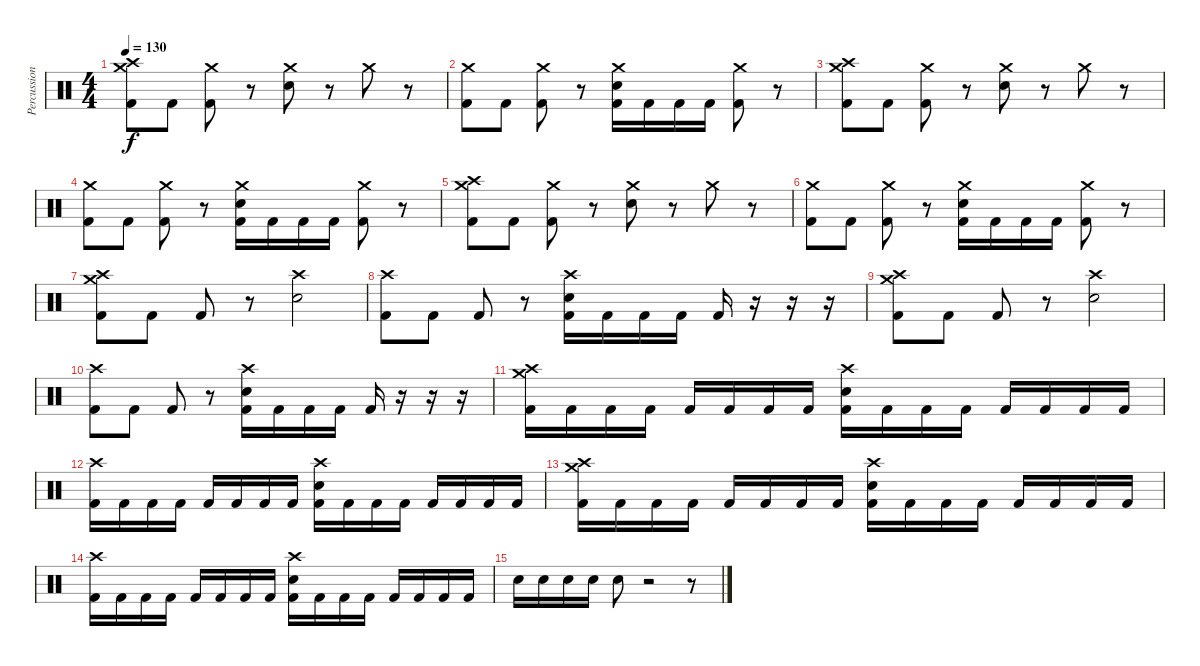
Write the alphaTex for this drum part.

\track ("Percussion" "Percussion") {instrument percussion}
\staff {score}
\articulation defaults
\ts (4 4)
\tempo 130
\clef neutral
\ks c
("Crash high (hit)" "Crash medium (hit)" "Kick (hit) 2").8{dy f} "Kick (hit) 2".8 ("Crash medium (hit)" "Kick (hit) 2").8 r.8 ("Crash medium (hit)" "Electric Snare (hit)").8 r.8 "Crash medium (hit)".8 r.8 |
("Crash medium (hit)" "Kick (hit) 2").8 "Kick (hit) 2".8 ("Crash medium (hit)" "Kick (hit) 2").8 r.8 ("Crash medium (hit)" "Electric Snare (hit)" "Kick (hit) 2").16 "Kick (hit) 2".16 "Kick (hit) 2".16 "Kick (hit) 2".16 ("Crash medium (hit)" "Kick (hit) 2").8 r.8 |
("Crash high (hit)" "Crash medium (hit)" "Kick (hit) 2").8 "Kick (hit) 2".8 ("Crash medium (hit)" "Kick (hit) 2").8 r.8 ("Crash medium (hit)" "Electric Snare (hit)").8 r.8 "Crash medium (hit)".8 r.8 |
("Crash medium (hit)" "Kick (hit) 2").8 "Kick (hit) 2".8 ("Crash medium (hit)" "Kick (hit) 2").8 r.8 ("Crash medium (hit)" "Electric Snare (hit)" "Kick (hit) 2").16 "Kick (hit) 2".16 "Kick (hit) 2".16 "Kick (hit) 2".16 ("Crash medium (hit)" "Kick (hit) 2").8 r.8 |
("Crash high (hit)" "Crash medium (hit)" "Kick (hit) 2").8 "Kick (hit) 2".8 ("Crash medium (hit)" "Kick (hit) 2").8 r.8 ("Crash medium (hit)" "Electric Snare (hit)").8 r.8 "Crash medium (hit)".8 r.8 |
("Crash medium (hit)" "Kick (hit) 2").8 "Kick (hit) 2".8 ("Crash medium (hit)" "Kick (hit) 2").8 r.8 ("Crash medium (hit)" "Electric Snare (hit)" "Kick (hit) 2").16 "Kick (hit) 2".16 "Kick (hit) 2".16 "Kick (hit) 2".16 ("Crash medium (hit)" "Kick (hit) 2").8 r.8 |
("Crash medium (hit)" "Crash high (hit)" "Kick (hit) 2").8 "Kick (hit) 2".8 "Kick (hit) 2".8 r.8 ("Crash high (hit)" "Electric Snare (hit)").2 |
("Crash high (hit)" "Kick (hit) 2").8 "Kick (hit) 2".8 "Kick (hit) 2".8 r.8 ("Crash high (hit)" "Electric Snare (hit)" "Kick (hit) 2").16 "Kick (hit) 2".16 "Kick (hit) 2".16 "Kick (hit) 2".16 "Kick (hit) 2".16 r.16 r.16 r.16 |
("Crash medium (hit)" "Crash high (hit)" "Kick (hit) 2").8 "Kick (hit) 2".8 "Kick (hit) 2".8 r.8 ("Crash high (hit)" "Electric Snare (hit)").2 |
("Crash high (hit)" "Kick (hit) 2").8 "Kick (hit) 2".8 "Kick (hit) 2".8 r.8 ("Crash high (hit)" "Electric Snare (hit)" "Kick (hit) 2").16 "Kick (hit) 2".16 "Kick (hit) 2".16 "Kick (hit) 2".16 "Kick (hit) 2".16 r.16 r.16 r.16 |
("Crash medium (hit)" "Crash high (hit)" "Kick (hit) 2").16 "Kick (hit) 2".16 "Kick (hit) 2".16 "Kick (hit) 2".16 "Kick (hit) 2".16 "Kick (hit) 2".16 "Kick (hit) 2".16 "Kick (hit) 2".16 ("Crash high (hit)" "Electric Snare (hit)" "Kick (hit) 2").16 "Kick (hit) 2".16 "Kick (hit) 2".16 "Kick (hit) 2".16 "Kick (hit) 2".16 "Kick (hit) 2".16 "Kick (hit) 2".16 "Kick (hit) 2".16 |
("Crash high (hit)" "Kick (hit) 2").16 "Kick (hit) 2".16 "Kick (hit) 2".16 "Kick (hit) 2".16 "Kick (hit) 2".16 "Kick (hit) 2".16 "Kick (hit) 2".16 "Kick (hit) 2".16 ("Crash high (hit)" "Electric Snare (hit)" "Kick (hit) 2").16 "Kick (hit) 2".16 "Kick (hit) 2".16 "Kick (hit) 2".16 "Kick (hit) 2".16 "Kick (hit) 2".16 "Kick (hit) 2".16 "Kick (hit) 2".16 |
("Crash medium (hit)" "Crash high (hit)" "Kick (hit) 2").16 "Kick (hit) 2".16 "Kick (hit) 2".16 "Kick (hit) 2".16 "Kick (hit) 2".16 "Kick (hit) 2".16 "Kick (hit) 2".16 "Kick (hit) 2".16 ("Crash high (hit)" "Electric Snare (hit)" "Kick (hit) 2").16 "Kick (hit) 2".16 "Kick (hit) 2".16 "Kick (hit) 2".16 "Kick (hit) 2".16 "Kick (hit) 2".16 "Kick (hit) 2".16 "Kick (hit) 2".16 |
("Crash high (hit)" "Kick (hit) 2").16 "Kick (hit) 2".16 "Kick (hit) 2".16 "Kick (hit) 2".16 "Kick (hit) 2".16 "Kick (hit) 2".16 "Kick (hit) 2".16 "Kick (hit) 2".16 ("Crash high (hit)" "Electric Snare (hit)" "Kick (hit) 2").16 "Kick (hit) 2".16 "Kick (hit) 2".16 "Kick (hit) 2".16 "Kick (hit) 2".16 "Kick (hit) 2".16 "Kick (hit) 2".16 "Kick (hit) 2".16 |
"Electric Snare (hit)".16 "Electric Snare (hit)".16 "Electric Snare (hit)".16 "Electric Snare (hit)".16 "Electric Snare (hit)".8 r.2 r.8
